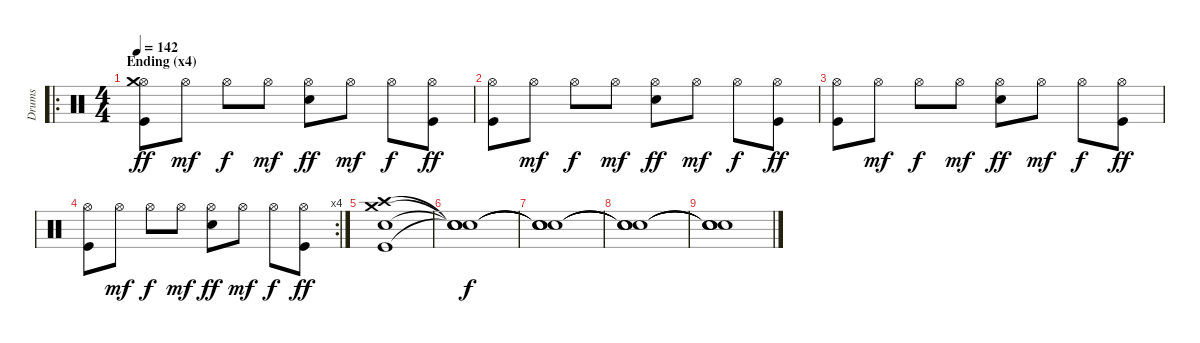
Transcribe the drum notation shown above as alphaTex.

\track ("Drums" "Drums") {instrument percussion}
\staff {score}
\articulation defaults
\ro
\ts (4 4)
\section ("" "Ending (x4)")
\tempo 142
\clef neutral
\ks c
("Hi-Hat (open)" "Crash medium (hit)" "Kick (hit)").8{dy ff} "Hi-Hat (open)".8{dy mf} "Hi-Hat (open)".8{dy f} "Hi-Hat (open)".8{dy mf} ("Hi-Hat (open)" "Snare (hit) 2").8{dy ff} "Hi-Hat (open)".8{dy mf} "Hi-Hat (open)".8{dy f} ("Hi-Hat (open)" "Kick (hit)").8{dy ff} |
("Hi-Hat (open)" "Kick (hit)").8 "Hi-Hat (open)".8{dy mf} "Hi-Hat (open)".8{dy f} "Hi-Hat (open)".8{dy mf} ("Hi-Hat (open)" "Snare (hit) 2").8{dy ff} "Hi-Hat (open)".8{dy mf} "Hi-Hat (open)".8{dy f} ("Hi-Hat (open)" "Kick (hit)").8{dy ff} |
("Hi-Hat (open)" "Kick (hit)").8 "Hi-Hat (open)".8{dy mf} "Hi-Hat (open)".8{dy f} "Hi-Hat (open)".8{dy mf} ("Hi-Hat (open)" "Snare (hit) 2").8{dy ff} "Hi-Hat (open)".8{dy mf} "Hi-Hat (open)".8{dy f} ("Hi-Hat (open)" "Kick (hit)").8{dy ff} |
\rc 4
("Hi-Hat (open)" "Kick (hit)").8 "Hi-Hat (open)".8{dy mf} "Hi-Hat (open)".8{dy f} "Hi-Hat (open)".8{dy mf} ("Hi-Hat (open)" "Snare (hit) 2").8{dy ff} "Hi-Hat (open)".8{dy mf} "Hi-Hat (open)".8{dy f} ("Hi-Hat (open)" "Kick (hit)").8{dy ff} |
("Crash medium (hit)" "Crash high (hit)" "Snare (hit) 2" "Kick (hit)").1 |
("Snare (hit)"{t} "Snare (hit)"{t} "Snare (hit)"{t} "Snare (hit)"{t}).1{dy f volume 0} |
("Snare (hit)"{t} "Snare (hit)"{t} "Snare (hit)"{t} "Snare (hit)"{t}).1 |
("Snare (hit)"{t} "Snare (hit)"{t} "Snare (hit)"{t} "Snare (hit)"{t}).1 |
("Snare (hit)"{t} "Snare (hit)"{t} "Snare (hit)"{t} "Snare (hit)"{t}).1
